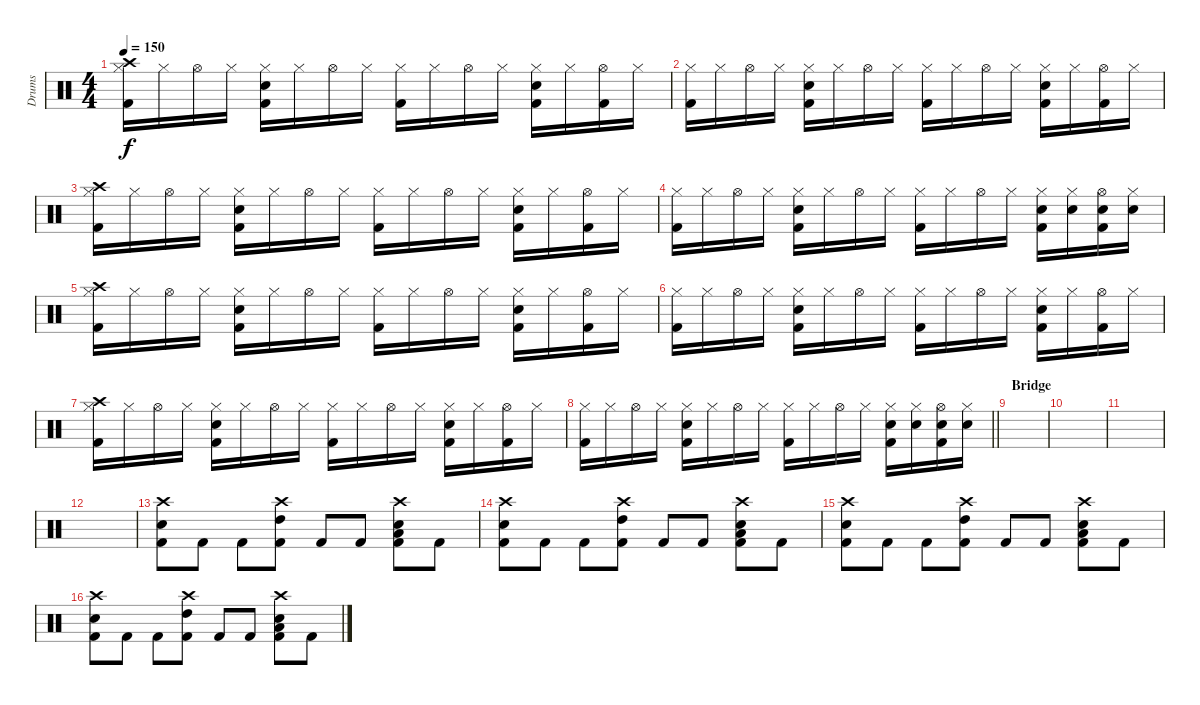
\track ("Drums" "Drums") {instrument percussion}
\staff {score}
\articulation defaults
\ts (4 4)
\tempo 150
\clef neutral
\ks c
("Crash high (hit)" "Hi-Hat (closed)" "Kick (hit) 2").16{dy f} "Hi-Hat (closed)".16 "Hi-Hat (open)".16 "Hi-Hat (closed)".16 ("Hi-Hat (closed)" "Electric Snare (hit)" "Kick (hit) 2").16 "Hi-Hat (closed)".16 "Hi-Hat (open)".16 "Hi-Hat (closed)".16 ("Hi-Hat (closed)" "Kick (hit) 2").16 "Hi-Hat (closed)".16 "Hi-Hat (open)".16 "Hi-Hat (closed)".16 ("Hi-Hat (closed)" "Electric Snare (hit)" "Kick (hit) 2").16 "Hi-Hat (closed)".16 ("Hi-Hat (open)" "Kick (hit) 2").16 "Hi-Hat (closed)".16 |
("Hi-Hat (closed)" "Kick (hit) 2").16 "Hi-Hat (closed)".16 "Hi-Hat (open)".16 "Hi-Hat (closed)".16 ("Hi-Hat (closed)" "Electric Snare (hit)" "Kick (hit) 2").16 "Hi-Hat (closed)".16 "Hi-Hat (open)".16 "Hi-Hat (closed)".16 ("Hi-Hat (closed)" "Kick (hit) 2").16 "Hi-Hat (closed)".16 "Hi-Hat (open)".16 "Hi-Hat (closed)".16 ("Hi-Hat (closed)" "Electric Snare (hit)" "Kick (hit) 2").16 "Hi-Hat (closed)".16 ("Hi-Hat (open)" "Kick (hit) 2").16 "Hi-Hat (closed)".16 |
("Crash high (hit)" "Hi-Hat (closed)" "Kick (hit) 2").16 "Hi-Hat (closed)".16 "Hi-Hat (open)".16 "Hi-Hat (closed)".16 ("Hi-Hat (closed)" "Electric Snare (hit)" "Kick (hit) 2").16 "Hi-Hat (closed)".16 "Hi-Hat (open)".16 "Hi-Hat (closed)".16 ("Hi-Hat (closed)" "Kick (hit) 2").16 "Hi-Hat (closed)".16 "Hi-Hat (open)".16 "Hi-Hat (closed)".16 ("Hi-Hat (closed)" "Electric Snare (hit)" "Kick (hit) 2").16 "Hi-Hat (closed)".16 ("Hi-Hat (open)" "Kick (hit) 2").16 "Hi-Hat (closed)".16 |
("Hi-Hat (closed)" "Kick (hit) 2").16 "Hi-Hat (closed)".16 "Hi-Hat (open)".16 "Hi-Hat (closed)".16 ("Hi-Hat (closed)" "Electric Snare (hit)" "Kick (hit) 2").16 "Hi-Hat (closed)".16 "Hi-Hat (open)".16 "Hi-Hat (closed)".16 ("Hi-Hat (closed)" "Kick (hit) 2").16 "Hi-Hat (closed)".16 "Hi-Hat (open)".16 "Hi-Hat (closed)".16 ("Hi-Hat (closed)" "Electric Snare (hit)" "Kick (hit) 2").16 ("Hi-Hat (closed)" "Electric Snare (hit)").16 ("Hi-Hat (open)" "Electric Snare (hit)" "Kick (hit) 2").16 ("Hi-Hat (closed)" "Electric Snare (hit)").16 |
("Crash high (hit)" "Hi-Hat (closed)" "Kick (hit) 2").16 "Hi-Hat (closed)".16 "Hi-Hat (open)".16 "Hi-Hat (closed)".16 ("Hi-Hat (closed)" "Electric Snare (hit)" "Kick (hit) 2").16 "Hi-Hat (closed)".16 "Hi-Hat (open)".16 "Hi-Hat (closed)".16 ("Hi-Hat (closed)" "Kick (hit) 2").16 "Hi-Hat (closed)".16 "Hi-Hat (open)".16 "Hi-Hat (closed)".16 ("Hi-Hat (closed)" "Electric Snare (hit)" "Kick (hit) 2").16 "Hi-Hat (closed)".16 ("Hi-Hat (open)" "Kick (hit) 2").16 "Hi-Hat (closed)".16 |
("Hi-Hat (closed)" "Kick (hit) 2").16 "Hi-Hat (closed)".16 "Hi-Hat (open)".16 "Hi-Hat (closed)".16 ("Hi-Hat (closed)" "Electric Snare (hit)" "Kick (hit) 2").16 "Hi-Hat (closed)".16 "Hi-Hat (open)".16 "Hi-Hat (closed)".16 ("Hi-Hat (closed)" "Kick (hit) 2").16 "Hi-Hat (closed)".16 "Hi-Hat (open)".16 "Hi-Hat (closed)".16 ("Hi-Hat (closed)" "Electric Snare (hit)" "Kick (hit) 2").16 "Hi-Hat (closed)".16 ("Hi-Hat (open)" "Kick (hit) 2").16 "Hi-Hat (closed)".16 |
("Crash high (hit)" "Hi-Hat (closed)" "Kick (hit) 2").16 "Hi-Hat (closed)".16 "Hi-Hat (open)".16 "Hi-Hat (closed)".16 ("Hi-Hat (closed)" "Electric Snare (hit)" "Kick (hit) 2").16 "Hi-Hat (closed)".16 "Hi-Hat (open)".16 "Hi-Hat (closed)".16 ("Hi-Hat (closed)" "Kick (hit) 2").16 "Hi-Hat (closed)".16 "Hi-Hat (open)".16 "Hi-Hat (closed)".16 ("Hi-Hat (closed)" "Electric Snare (hit)" "Kick (hit) 2").16 "Hi-Hat (closed)".16 ("Hi-Hat (open)" "Kick (hit) 2").16 "Hi-Hat (closed)".16 |
\barLineRight lightlight
("Hi-Hat (closed)" "Kick (hit) 2").16 "Hi-Hat (closed)".16 "Hi-Hat (open)".16 "Hi-Hat (closed)".16 ("Hi-Hat (closed)" "Electric Snare (hit)" "Kick (hit) 2").16 "Hi-Hat (closed)".16 "Hi-Hat (open)".16 "Hi-Hat (closed)".16 ("Hi-Hat (closed)" "Kick (hit) 2").16 "Hi-Hat (closed)".16 "Hi-Hat (open)".16 "Hi-Hat (closed)".16 ("Hi-Hat (closed)" "Electric Snare (hit)" "Kick (hit) 2").16 ("Hi-Hat (closed)" "Electric Snare (hit)").16 ("Hi-Hat (open)" "Electric Snare (hit)" "Kick (hit) 2").16 ("Hi-Hat (closed)" "Electric Snare (hit)").16 |
\section ("" "Bridge")
|
|
|
|
("Crash high (hit)" "Electric Snare (hit)" "Kick (hit) 2").8 "Kick (hit) 2".8 "Kick (hit) 2".8 ("Crash high (hit)" "High Tom (hit)" "Kick (hit) 2").8 "Kick (hit) 2".8 "Kick (hit) 2".8 ("Crash high (hit)" "Low Tom (hit)" "Electric Snare (hit)" "Kick (hit) 2").8 "Kick (hit) 2".8 |
("Crash high (hit)" "Electric Snare (hit)" "Kick (hit) 2").8 "Kick (hit) 2".8 "Kick (hit) 2".8 ("Crash high (hit)" "High Tom (hit)" "Kick (hit) 2").8 "Kick (hit) 2".8 "Kick (hit) 2".8 ("Crash high (hit)" "Low Tom (hit)" "Electric Snare (hit)" "Kick (hit) 2").8 "Kick (hit) 2".8 |
("Crash high (hit)" "Electric Snare (hit)" "Kick (hit) 2").8 "Kick (hit) 2".8 "Kick (hit) 2".8 ("Crash high (hit)" "High Tom (hit)" "Kick (hit) 2").8 "Kick (hit) 2".8 "Kick (hit) 2".8 ("Crash high (hit)" "Low Tom (hit)" "Electric Snare (hit)" "Kick (hit) 2").8 "Kick (hit) 2".8 |
("Crash high (hit)" "Electric Snare (hit)" "Kick (hit) 2").8 "Kick (hit) 2".8 "Kick (hit) 2".8 ("Crash high (hit)" "High Tom (hit)" "Kick (hit) 2").8 "Kick (hit) 2".8 "Kick (hit) 2".8 ("Crash high (hit)" "Low Tom (hit)" "Electric Snare (hit)" "Kick (hit) 2").8 "Kick (hit) 2".8
